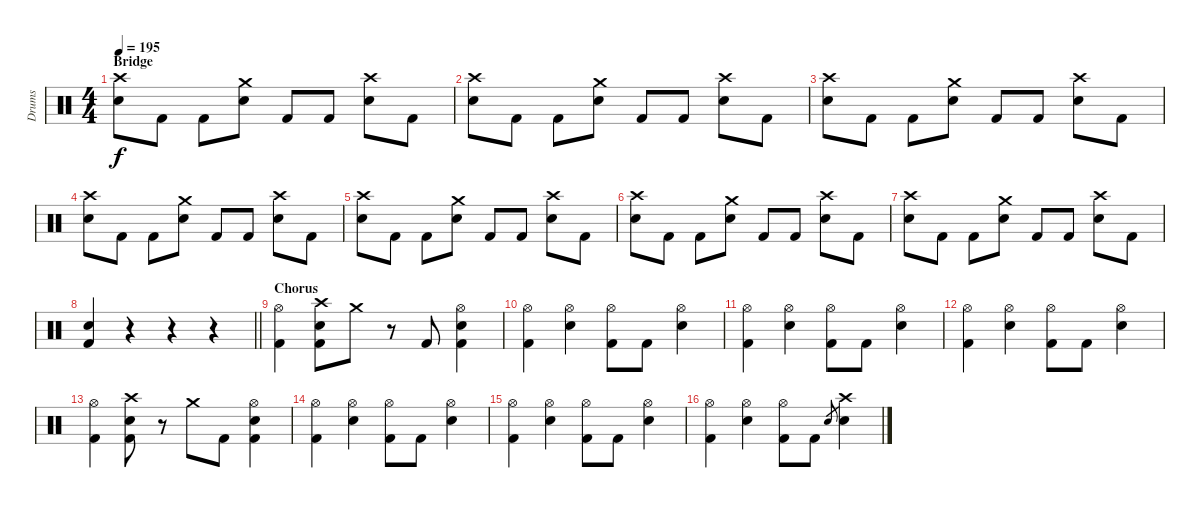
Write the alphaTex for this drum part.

\track ("Drums" "Drums") {instrument percussion}
\staff {score}
\articulation defaults
\ts (4 4)
\section ("" "Bridge")
\tempo 195
\clef neutral
\ks c
("Crash high (hit)" "Snare (hit) 2").8{dy f} "Kick (hit) 2".8 "Kick (hit) 2".8 ("Crash medium (hit)" "Snare (hit) 2").8 "Kick (hit) 2".8 "Kick (hit) 2".8 ("Crash high (hit)" "Snare (hit) 2").8 "Kick (hit) 2".8 |
("Crash high (hit)" "Snare (hit) 2").8 "Kick (hit) 2".8 "Kick (hit) 2".8 ("Crash medium (hit)" "Snare (hit) 2").8 "Kick (hit) 2".8 "Kick (hit) 2".8 ("Crash high (hit)" "Snare (hit) 2").8 "Kick (hit) 2".8 |
("Crash high (hit)" "Snare (hit) 2").8 "Kick (hit) 2".8 "Kick (hit) 2".8 ("Crash medium (hit)" "Snare (hit) 2").8 "Kick (hit) 2".8 "Kick (hit) 2".8 ("Crash high (hit)" "Snare (hit) 2").8 "Kick (hit) 2".8 |
("Crash high (hit)" "Snare (hit) 2").8 "Kick (hit) 2".8 "Kick (hit) 2".8 ("Crash medium (hit)" "Snare (hit) 2").8 "Kick (hit) 2".8 "Kick (hit) 2".8 ("Crash high (hit)" "Snare (hit) 2").8 "Kick (hit) 2".8 |
("Crash high (hit)" "Snare (hit) 2").8 "Kick (hit) 2".8 "Kick (hit) 2".8 ("Crash medium (hit)" "Snare (hit) 2").8 "Kick (hit) 2".8 "Kick (hit) 2".8 ("Crash high (hit)" "Snare (hit) 2").8 "Kick (hit) 2".8 |
("Crash high (hit)" "Snare (hit) 2").8 "Kick (hit) 2".8 "Kick (hit) 2".8 ("Crash medium (hit)" "Snare (hit) 2").8 "Kick (hit) 2".8 "Kick (hit) 2".8 ("Crash high (hit)" "Snare (hit) 2").8 "Kick (hit) 2".8 |
("Crash high (hit)" "Snare (hit) 2").8 "Kick (hit) 2".8 "Kick (hit) 2".8 ("Crash medium (hit)" "Snare (hit) 2").8 "Kick (hit) 2".8 "Kick (hit) 2".8 ("Crash high (hit)" "Snare (hit) 2").8 "Kick (hit) 2".8 |
\barLineRight lightlight
("Snare (hit) 2" "Kick (hit) 2").4 r.4 r.4 r.4 |
\section ("" "Chorus")
("Hi-Hat (open)" "Kick (hit) 2").4 ("Crash high (hit)" "Snare (hit) 2" "Kick (hit) 2").8 "Crash medium (hit)".8 r.8 "Kick (hit) 2".8 ("Hi-Hat (open)" "Snare (hit) 2" "Kick (hit) 2").4 |
("Hi-Hat (open)" "Kick (hit) 2").4 ("Hi-Hat (open)" "Snare (hit) 2").4 ("Hi-Hat (open)" "Kick (hit) 2").8 "Kick (hit) 2".8 ("Hi-Hat (open)" "Snare (hit) 2").4 |
("Hi-Hat (open)" "Kick (hit) 2").4 ("Hi-Hat (open)" "Snare (hit) 2").4 ("Hi-Hat (open)" "Kick (hit) 2").8 "Kick (hit) 2".8 ("Hi-Hat (open)" "Snare (hit) 2").4 |
("Hi-Hat (open)" "Kick (hit) 2").4 ("Hi-Hat (open)" "Snare (hit) 2").4 ("Hi-Hat (open)" "Kick (hit) 2").8 "Kick (hit) 2".8 ("Hi-Hat (open)" "Snare (hit) 2").4 |
("Hi-Hat (open)" "Kick (hit) 2").4 ("Crash high (hit)" "Snare (hit) 2" "Kick (hit) 2").8 r.8 "Crash medium (hit)".8 "Kick (hit) 2".8 ("Hi-Hat (open)" "Snare (hit) 2" "Kick (hit) 2").4 |
("Hi-Hat (open)" "Kick (hit) 2").4 ("Hi-Hat (open)" "Snare (hit) 2").4 ("Hi-Hat (open)" "Kick (hit) 2").8 "Kick (hit) 2".8 ("Hi-Hat (open)" "Snare (hit) 2").4 |
("Hi-Hat (open)" "Kick (hit) 2").4 ("Hi-Hat (open)" "Snare (hit) 2").4 ("Hi-Hat (open)" "Kick (hit) 2").8 "Kick (hit) 2".8 ("Hi-Hat (open)" "Snare (hit) 2").4 |
("Hi-Hat (open)" "Kick (hit) 2").4 ("Hi-Hat (open)" "Snare (hit) 2").4 ("Hi-Hat (open)" "Kick (hit) 2").8 "Kick (hit) 2".8 "Snare (hit) 2".8{gr} ("Crash high (hit)" "Snare (hit) 2").4
